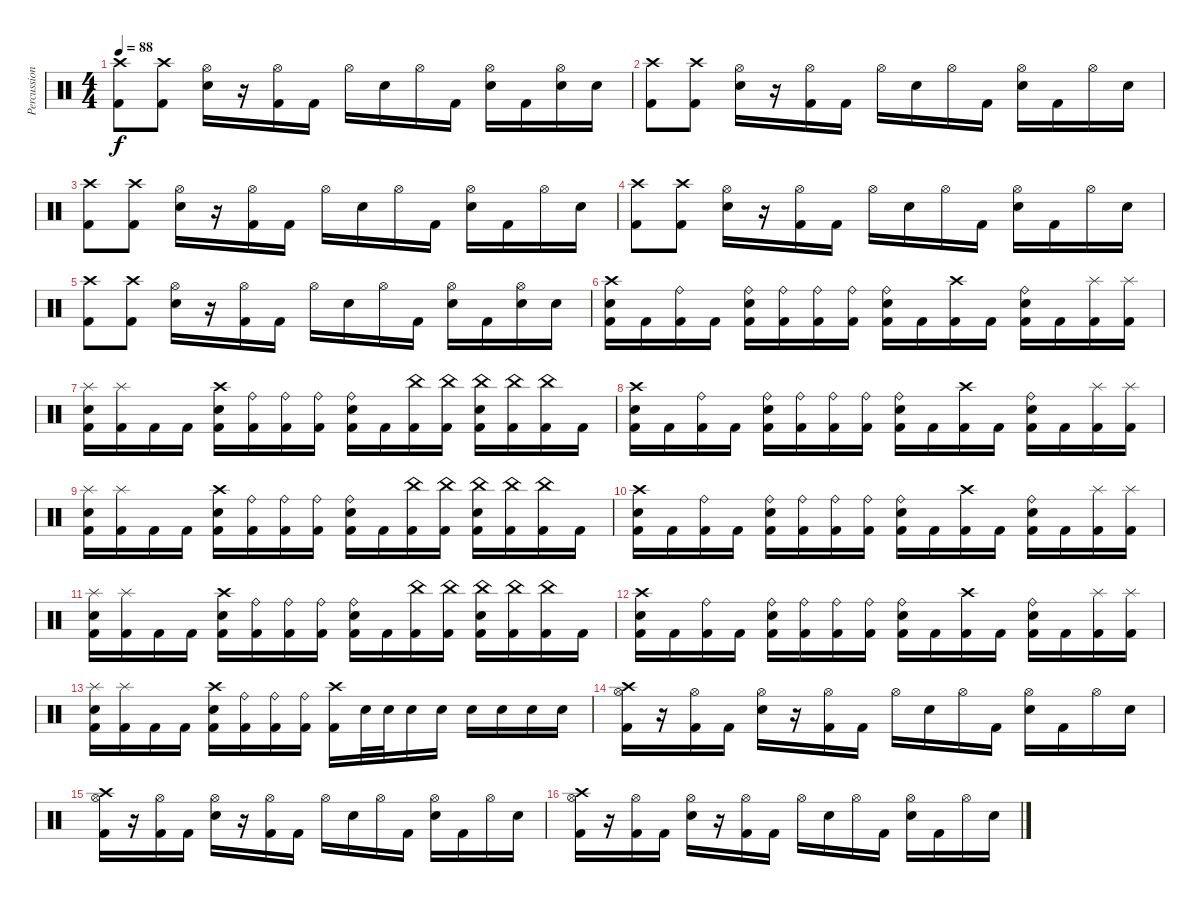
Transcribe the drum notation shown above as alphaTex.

\track ("Percussion" "Percussion") {instrument percussion}
\staff {score}
\articulation defaults
\ts (4 4)
\tempo 88
\clef neutral
\ks c
("Crash high (hit)" "Kick (hit) 2").8{dy f} ("Crash high (hit)" "Kick (hit) 2").8 ("Hi-Hat (open)" "Electric Snare (hit)").16 r.16 ("Hi-Hat (open)" "Kick (hit) 2").16 "Kick (hit) 2".16 "Hi-Hat (open)".16 "Electric Snare (hit)".16 "Hi-Hat (open)".16 "Kick (hit) 2".16 ("Hi-Hat (open)" "Electric Snare (hit)").16 "Kick (hit) 2".16 ("Hi-Hat (open)" "Electric Snare (hit)").16 "Electric Snare (hit)".16 |
("Crash high (hit)" "Kick (hit) 2").8 ("Crash high (hit)" "Kick (hit) 2").8 ("Hi-Hat (open)" "Electric Snare (hit)").16 r.16 ("Hi-Hat (open)" "Kick (hit) 2").16 "Kick (hit) 2".16 "Hi-Hat (open)".16 "Electric Snare (hit)".16 "Hi-Hat (open)".16 "Kick (hit) 2".16 ("Hi-Hat (open)" "Electric Snare (hit)").16 "Kick (hit) 2".16 "Hi-Hat (open)".16 "Electric Snare (hit)".16 |
("Crash high (hit)" "Kick (hit) 2").8 ("Crash high (hit)" "Kick (hit) 2").8 ("Hi-Hat (open)" "Electric Snare (hit)").16 r.16 ("Hi-Hat (open)" "Kick (hit) 2").16 "Kick (hit) 2".16 "Hi-Hat (open)".16 "Electric Snare (hit)".16 "Hi-Hat (open)".16 "Kick (hit) 2".16 ("Hi-Hat (open)" "Electric Snare (hit)").16 "Kick (hit) 2".16 "Hi-Hat (open)".16 "Electric Snare (hit)".16 |
("Crash high (hit)" "Kick (hit) 2").8 ("Crash high (hit)" "Kick (hit) 2").8 ("Hi-Hat (open)" "Electric Snare (hit)").16 r.16 ("Hi-Hat (open)" "Kick (hit) 2").16 "Kick (hit) 2".16 "Hi-Hat (open)".16 "Electric Snare (hit)".16 "Hi-Hat (open)".16 "Kick (hit) 2".16 ("Hi-Hat (open)" "Electric Snare (hit)").16 "Kick (hit) 2".16 "Hi-Hat (open)".16 "Electric Snare (hit)".16 |
("Crash high (hit)" "Kick (hit) 2").8 ("Crash high (hit)" "Kick (hit) 2").8 ("Hi-Hat (open)" "Electric Snare (hit)").16 r.16 ("Hi-Hat (open)" "Kick (hit) 2").16 "Kick (hit) 2".16 "Hi-Hat (open)".16 "Electric Snare (hit)".16 "Hi-Hat (open)".16 "Kick (hit) 2".16 ("Hi-Hat (open)" "Electric Snare (hit)").16 "Kick (hit) 2".16 ("Hi-Hat (open)" "Electric Snare (hit)").16 "Electric Snare (hit)".16 |
("Crash high (hit)" "Electric Snare (hit)" "Kick (hit) 2").16 "Kick (hit) 2".16 ("Ride (bell)" "Kick (hit) 2").16 "Kick (hit) 2".16 ("Ride (bell)" "Electric Snare (hit)" "Kick (hit) 2").16 ("Ride (bell)" "Kick (hit) 2").16 ("Ride (bell)" "Kick (hit) 2").16 ("Ride (bell)" "Kick (hit) 2").16 ("Ride (bell)" "Electric Snare (hit)" "Kick (hit) 2").16 "Kick (hit) 2".16 ("Crash high (hit)" "Kick (hit) 2").16 "Kick (hit) 2".16 ("Ride (bell)" "Electric Snare (hit)" "Kick (hit) 2").16 "Kick (hit) 2".16 ("Splash (hit)" "Kick (hit) 2").16 ("Splash (hit)" "Kick (hit) 2").16 |
("Splash (hit)" "Electric Snare (hit)" "Kick (hit) 2").16 ("Splash (hit)" "Kick (hit) 2").16 "Kick (hit) 2".16 "Kick (hit) 2".16 ("Crash high (hit)" "Electric Snare (hit)" "Kick (hit) 2").16 ("Ride (bell)" "Kick (hit) 2").16 ("Ride (bell)" "Kick (hit) 2").16 ("Ride (bell)" "Kick (hit) 2").16 ("Ride (bell)" "Electric Snare (hit)" "Kick (hit) 2").16 "Kick (hit) 2".16 ("China (hit)" "Kick (hit) 2").16 ("China (hit)" "Kick (hit) 2").16 ("China (hit)" "Electric Snare (hit)" "Kick (hit) 2").16 ("China (hit)" "Kick (hit) 2").16 ("China (hit)" "Kick (hit) 2").16 "Kick (hit) 2".16 |
("Crash high (hit)" "Electric Snare (hit)" "Kick (hit) 2").16 "Kick (hit) 2".16 ("Ride (bell)" "Kick (hit) 2").16 "Kick (hit) 2".16 ("Ride (bell)" "Electric Snare (hit)" "Kick (hit) 2").16 ("Ride (bell)" "Kick (hit) 2").16 ("Ride (bell)" "Kick (hit) 2").16 ("Ride (bell)" "Kick (hit) 2").16 ("Ride (bell)" "Electric Snare (hit)" "Kick (hit) 2").16 "Kick (hit) 2".16 ("Crash high (hit)" "Kick (hit) 2").16 "Kick (hit) 2".16 ("Ride (bell)" "Electric Snare (hit)" "Kick (hit) 2").16 "Kick (hit) 2".16 ("Splash (hit)" "Kick (hit) 2").16 ("Splash (hit)" "Kick (hit) 2").16 |
("Splash (hit)" "Electric Snare (hit)" "Kick (hit) 2").16 ("Splash (hit)" "Kick (hit) 2").16 "Kick (hit) 2".16 "Kick (hit) 2".16 ("Crash high (hit)" "Electric Snare (hit)" "Kick (hit) 2").16 ("Ride (bell)" "Kick (hit) 2").16 ("Ride (bell)" "Kick (hit) 2").16 ("Ride (bell)" "Kick (hit) 2").16 ("Ride (bell)" "Electric Snare (hit)" "Kick (hit) 2").16 "Kick (hit) 2".16 ("China (hit)" "Kick (hit) 2").16 ("China (hit)" "Kick (hit) 2").16 ("China (hit)" "Electric Snare (hit)" "Kick (hit) 2").16 ("China (hit)" "Kick (hit) 2").16 ("China (hit)" "Kick (hit) 2").16 "Kick (hit) 2".16 |
("Crash high (hit)" "Electric Snare (hit)" "Kick (hit) 2").16 "Kick (hit) 2".16 ("Ride (bell)" "Kick (hit) 2").16 "Kick (hit) 2".16 ("Ride (bell)" "Electric Snare (hit)" "Kick (hit) 2").16 ("Ride (bell)" "Kick (hit) 2").16 ("Ride (bell)" "Kick (hit) 2").16 ("Ride (bell)" "Kick (hit) 2").16 ("Ride (bell)" "Electric Snare (hit)" "Kick (hit) 2").16 "Kick (hit) 2".16 ("Crash high (hit)" "Kick (hit) 2").16 "Kick (hit) 2".16 ("Ride (bell)" "Electric Snare (hit)" "Kick (hit) 2").16 "Kick (hit) 2".16 ("Splash (hit)" "Kick (hit) 2").16 ("Splash (hit)" "Kick (hit) 2").16 |
("Splash (hit)" "Electric Snare (hit)" "Kick (hit) 2").16 ("Splash (hit)" "Kick (hit) 2").16 "Kick (hit) 2".16 "Kick (hit) 2".16 ("Crash high (hit)" "Electric Snare (hit)" "Kick (hit) 2").16 ("Ride (bell)" "Kick (hit) 2").16 ("Ride (bell)" "Kick (hit) 2").16 ("Ride (bell)" "Kick (hit) 2").16 ("Ride (bell)" "Electric Snare (hit)" "Kick (hit) 2").16 "Kick (hit) 2".16 ("China (hit)" "Kick (hit) 2").16 ("China (hit)" "Kick (hit) 2").16 ("China (hit)" "Electric Snare (hit)" "Kick (hit) 2").16 ("China (hit)" "Kick (hit) 2").16 ("China (hit)" "Kick (hit) 2").16 "Kick (hit) 2".16 |
("Crash high (hit)" "Electric Snare (hit)" "Kick (hit) 2").16 "Kick (hit) 2".16 ("Ride (bell)" "Kick (hit) 2").16 "Kick (hit) 2".16 ("Ride (bell)" "Electric Snare (hit)" "Kick (hit) 2").16 ("Ride (bell)" "Kick (hit) 2").16 ("Ride (bell)" "Kick (hit) 2").16 ("Ride (bell)" "Kick (hit) 2").16 ("Ride (bell)" "Electric Snare (hit)" "Kick (hit) 2").16 "Kick (hit) 2".16 ("Crash high (hit)" "Kick (hit) 2").16 "Kick (hit) 2".16 ("Ride (bell)" "Electric Snare (hit)" "Kick (hit) 2").16 "Kick (hit) 2".16 ("Splash (hit)" "Kick (hit) 2").16 ("Splash (hit)" "Kick (hit) 2").16 |
("Splash (hit)" "Electric Snare (hit)" "Kick (hit) 2").16 ("Splash (hit)" "Kick (hit) 2").16 "Kick (hit) 2".16 "Kick (hit) 2".16 ("Crash high (hit)" "Electric Snare (hit)" "Kick (hit) 2").16 ("Ride (bell)" "Kick (hit) 2").16 ("Ride (bell)" "Kick (hit) 2").16 ("Ride (bell)" "Kick (hit) 2").16 ("Crash high (hit)" "Kick (hit) 2").16 "Electric Snare (hit)".32 "Electric Snare (hit)".32 "Electric Snare (hit)".16 "Electric Snare (hit)".16 "Electric Snare (hit)".16 "Electric Snare (hit)".16 "Electric Snare (hit)".16 "Electric Snare (hit)".16 |
("Crash high (hit)" "Hi-Hat (open)" "Kick (hit) 2").16 r.16 ("Hi-Hat (open)" "Kick (hit) 2").16 "Kick (hit) 2".16 ("Hi-Hat (open)" "Electric Snare (hit)").16 r.16 ("Hi-Hat (open)" "Kick (hit) 2").16 "Kick (hit) 2".16 "Hi-Hat (open)".16 "Electric Snare (hit)".16 "Hi-Hat (open)".16 "Kick (hit) 2".16 ("Hi-Hat (open)" "Electric Snare (hit)").16 "Kick (hit) 2".16 "Hi-Hat (open)".16 "Electric Snare (hit)".16 |
("Crash high (hit)" "Hi-Hat (open)" "Kick (hit) 2").16 r.16 ("Hi-Hat (open)" "Kick (hit) 2").16 "Kick (hit) 2".16 ("Hi-Hat (open)" "Electric Snare (hit)").16 r.16 ("Hi-Hat (open)" "Kick (hit) 2").16 "Kick (hit) 2".16 "Hi-Hat (open)".16 "Electric Snare (hit)".16 "Hi-Hat (open)".16 "Kick (hit) 2".16 ("Hi-Hat (open)" "Electric Snare (hit)").16 "Kick (hit) 2".16 "Hi-Hat (open)".16 "Electric Snare (hit)".16 |
("Crash high (hit)" "Hi-Hat (open)" "Kick (hit) 2").16 r.16 ("Hi-Hat (open)" "Kick (hit) 2").16 "Kick (hit) 2".16 ("Hi-Hat (open)" "Electric Snare (hit)").16 r.16 ("Hi-Hat (open)" "Kick (hit) 2").16 "Kick (hit) 2".16 "Hi-Hat (open)".16 "Electric Snare (hit)".16 "Hi-Hat (open)".16 "Kick (hit) 2".16 ("Hi-Hat (open)" "Electric Snare (hit)").16 "Kick (hit) 2".16 "Hi-Hat (open)".16 "Electric Snare (hit)".16
